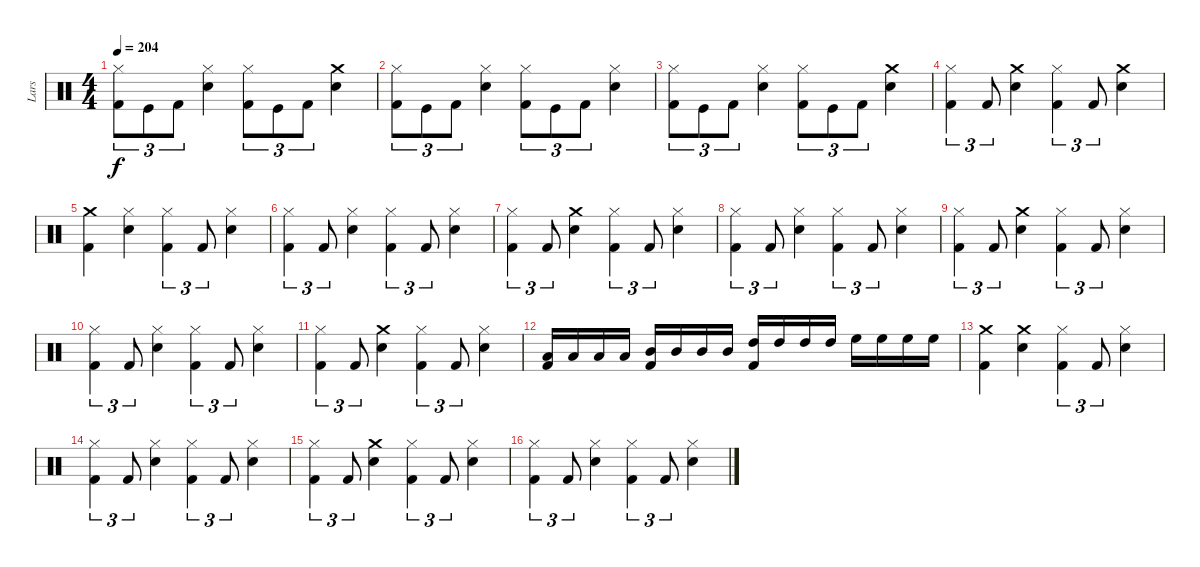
\track ("Lars" "Lars") {instrument percussion}
\staff {score}
\articulation defaults
\ts (4 4)
\tempo 204
\clef neutral
\ks c
("Hi-Hat (closed)" "Kick (hit) 2").8{tu (3 2) dy f} "Kick (hit)".8{tu (3 2)} "Kick (hit) 2".8{tu (3 2)} ("Snare (hit) 2" "Hi-Hat (closed)").4 ("Hi-Hat (closed)" "Kick (hit) 2").8{tu (3 2)} "Kick (hit)".8{tu (3 2)} "Kick (hit) 2".8{tu (3 2)} ("Crash medium (hit)" "Snare (hit) 2").4 |
("Hi-Hat (closed)" "Kick (hit) 2").8{tu (3 2)} "Kick (hit)".8{tu (3 2)} "Kick (hit) 2".8{tu (3 2)} ("Snare (hit) 2" "Hi-Hat (closed)").4 ("Hi-Hat (closed)" "Kick (hit) 2").8{tu (3 2)} "Kick (hit)".8{tu (3 2)} "Kick (hit) 2".8{tu (3 2)} ("Hi-Hat (closed)" "Snare (hit) 2").4 |
("Hi-Hat (closed)" "Kick (hit) 2").8{tu (3 2)} "Kick (hit)".8{tu (3 2)} "Kick (hit) 2".8{tu (3 2)} ("Snare (hit) 2" "Hi-Hat (closed)").4 ("Hi-Hat (closed)" "Kick (hit) 2").8{tu (3 2)} "Kick (hit)".8{tu (3 2)} "Kick (hit) 2".8{tu (3 2)} ("Crash medium (hit)" "Snare (hit) 2").4 |
("Hi-Hat (closed)" "Kick (hit) 2").4{tu (3 2)} "Kick (hit) 2".8{tu (3 2)} ("Crash medium (hit)" "Snare (hit) 2").4 ("Hi-Hat (closed)" "Kick (hit) 2").4{tu (3 2)} "Kick (hit) 2".8{tu (3 2)} ("Crash medium (hit)" "Snare (hit) 2").4 |
("Kick (hit) 2" "Crash medium (hit)").4 ("Hi-Hat (closed)" "Snare (hit) 2").4 ("Hi-Hat (closed)" "Kick (hit) 2").4{tu (3 2)} "Kick (hit) 2".8{tu (3 2)} ("Snare (hit) 2" "Hi-Hat (closed)").4 |
("Kick (hit) 2" "Hi-Hat (closed)").4{tu (3 2)} "Kick (hit) 2".8{tu (3 2)} ("Snare (hit) 2" "Hi-Hat (closed)").4 ("Kick (hit) 2" "Hi-Hat (closed)").4{tu (3 2)} "Kick (hit) 2".8{tu (3 2)} ("Snare (hit) 2" "Hi-Hat (closed)").4 |
("Kick (hit) 2" "Hi-Hat (closed)").4{tu (3 2)} "Kick (hit) 2".8{tu (3 2)} ("Crash medium (hit)" "Snare (hit) 2").4 ("Kick (hit) 2" "Hi-Hat (closed)").4{tu (3 2)} "Kick (hit) 2".8{tu (3 2)} ("Snare (hit) 2" "Hi-Hat (closed)").4 |
("Kick (hit) 2" "Hi-Hat (closed)").4{tu (3 2)} "Kick (hit) 2".8{tu (3 2)} ("Snare (hit) 2" "Hi-Hat (closed)").4 ("Kick (hit) 2" "Hi-Hat (closed)").4{tu (3 2)} "Kick (hit) 2".8{tu (3 2)} ("Snare (hit) 2" "Hi-Hat (closed)").4 |
("Kick (hit) 2" "Hi-Hat (closed)").4{tu (3 2)} "Kick (hit) 2".8{tu (3 2)} ("Crash medium (hit)" "Snare (hit) 2").4 ("Kick (hit) 2" "Hi-Hat (closed)").4{tu (3 2)} "Kick (hit) 2".8{tu (3 2)} ("Snare (hit) 2" "Hi-Hat (closed)").4 |
("Kick (hit) 2" "Hi-Hat (closed)").4{tu (3 2)} "Kick (hit) 2".8{tu (3 2)} ("Snare (hit) 2" "Hi-Hat (closed)").4 ("Kick (hit) 2" "Hi-Hat (closed)").4{tu (3 2)} "Kick (hit) 2".8{tu (3 2)} ("Snare (hit) 2" "Hi-Hat (closed)").4 |
("Kick (hit) 2" "Hi-Hat (closed)").4{tu (3 2)} "Kick (hit) 2".8{tu (3 2)} ("Crash medium (hit)" "Snare (hit) 2").4 ("Kick (hit) 2" "Hi-Hat (closed)").4{tu (3 2)} "Kick (hit) 2".8{tu (3 2)} ("Snare (hit) 2" "Hi-Hat (closed)").4 |
("Low Tom (hit)" "Kick (hit) 2").16 "Low Tom (hit)".16 "Low Tom (hit)".16 "Low Tom (hit)".16 ("Mid Tom (hit)" "Kick (hit) 2").16 "Mid Tom (hit)".16 "Mid Tom (hit)".16 "Mid Tom (hit)".16 ("High Tom (hit)" "Kick (hit) 2").16 "High Tom (hit)".16 "High Tom (hit)".16 "High Tom (hit)".16 "High Floor Tom (hit)".16 "High Floor Tom (hit)".16 "High Floor Tom (hit)".16 "High Floor Tom (hit)".16 |
("Kick (hit) 2" "Crash medium (hit)").4 ("Snare (hit) 2" "Crash medium (hit)").4 ("Hi-Hat (closed)" "Kick (hit) 2").4{tu (3 2)} "Kick (hit) 2".8{tu (3 2)} ("Hi-Hat (closed)" "Snare (hit) 2").4 |
("Kick (hit) 2" "Hi-Hat (closed)").4{tu (3 2)} "Kick (hit) 2".8{tu (3 2)} ("Snare (hit) 2" "Hi-Hat (closed)").4 ("Kick (hit) 2" "Hi-Hat (closed)").4{tu (3 2)} "Kick (hit) 2".8{tu (3 2)} ("Snare (hit) 2" "Hi-Hat (closed)").4 |
("Kick (hit) 2" "Hi-Hat (closed)").4{tu (3 2)} "Kick (hit) 2".8{tu (3 2)} ("Crash medium (hit)" "Snare (hit) 2").4 ("Kick (hit) 2" "Hi-Hat (closed)").4{tu (3 2)} "Kick (hit) 2".8{tu (3 2)} ("Snare (hit) 2" "Hi-Hat (closed)").4 |
("Kick (hit) 2" "Hi-Hat (closed)").4{tu (3 2)} "Kick (hit) 2".8{tu (3 2)} ("Snare (hit) 2" "Hi-Hat (closed)").4 ("Kick (hit) 2" "Hi-Hat (closed)").4{tu (3 2)} "Kick (hit) 2".8{tu (3 2)} ("Snare (hit) 2" "Hi-Hat (closed)").4
